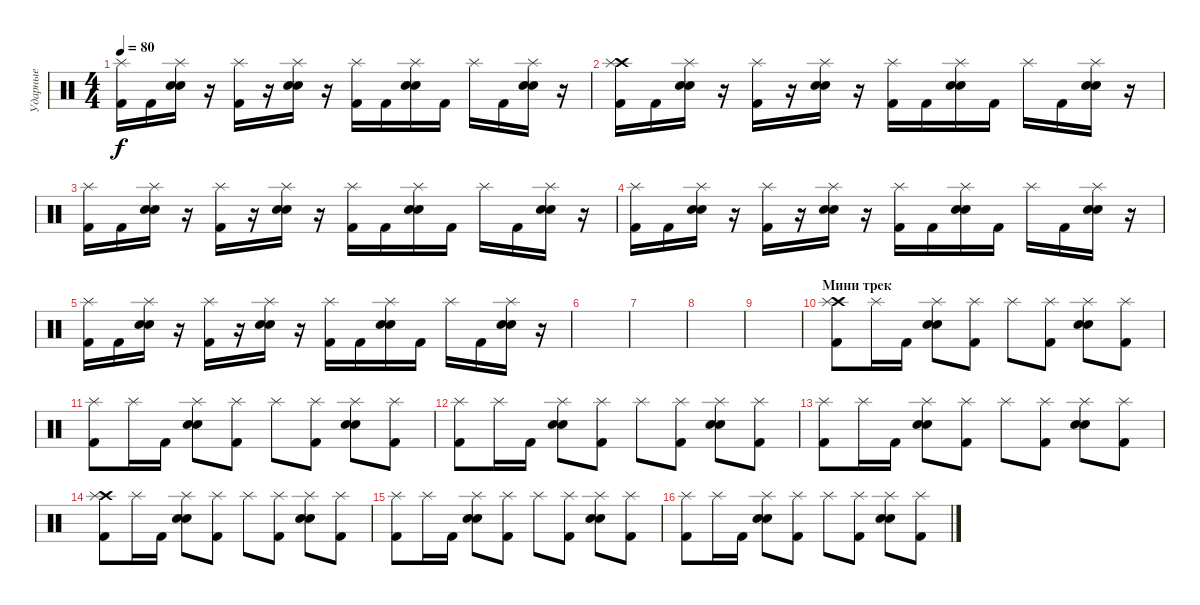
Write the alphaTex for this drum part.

\track ("Ударные" "Ударные") {instrument percussion}
\staff {score}
\articulation defaults
\ts (4 4)
\tempo 80
\clef neutral
\ks c
("Splash (hit)" "Kick (hit) 2").16{dy f} "Kick (hit) 2".16 ("Splash (hit)" "Snare (hit) 2" "Snare (hit) 2").16 r.16 ("Splash (hit)" "Kick (hit) 2").16 r.16 ("Splash (hit)" "Snare (hit) 2" "Snare (hit) 2").16 r.16 ("Splash (hit)" "Kick (hit) 2").16 "Kick (hit) 2".16 ("Splash (hit)" "Snare (hit) 2" "Snare (hit) 2").16 "Kick (hit) 2".16 "Splash (hit)".16 "Kick (hit) 2".16 ("Splash (hit)" "Snare (hit) 2" "Snare (hit) 2").16 r.16 |
("Crash high (hit)" "Splash (hit)" "Kick (hit) 2").16 "Kick (hit) 2".16 ("Splash (hit)" "Snare (hit) 2" "Snare (hit) 2").16 r.16 ("Splash (hit)" "Kick (hit) 2").16 r.16 ("Splash (hit)" "Snare (hit) 2" "Snare (hit) 2").16 r.16 ("Splash (hit)" "Kick (hit) 2").16 "Kick (hit) 2".16 ("Splash (hit)" "Snare (hit) 2" "Snare (hit) 2").16 "Kick (hit) 2".16 "Splash (hit)".16 "Kick (hit) 2".16 ("Splash (hit)" "Snare (hit) 2" "Snare (hit) 2").16 r.16 |
("Splash (hit)" "Kick (hit) 2").16 "Kick (hit) 2".16 ("Splash (hit)" "Snare (hit) 2" "Snare (hit) 2").16 r.16 ("Splash (hit)" "Kick (hit) 2").16 r.16 ("Splash (hit)" "Snare (hit) 2" "Snare (hit) 2").16 r.16 ("Splash (hit)" "Kick (hit) 2").16 "Kick (hit) 2".16 ("Splash (hit)" "Snare (hit) 2" "Snare (hit) 2").16 "Kick (hit) 2".16 "Splash (hit)".16 "Kick (hit) 2".16 ("Splash (hit)" "Snare (hit) 2" "Snare (hit) 2").16 r.16 |
("Splash (hit)" "Kick (hit) 2").16 "Kick (hit) 2".16 ("Splash (hit)" "Snare (hit) 2" "Snare (hit) 2").16 r.16 ("Splash (hit)" "Kick (hit) 2").16 r.16 ("Splash (hit)" "Snare (hit) 2" "Snare (hit) 2").16 r.16 ("Splash (hit)" "Kick (hit) 2").16 "Kick (hit) 2".16 ("Splash (hit)" "Snare (hit) 2" "Snare (hit) 2").16 "Kick (hit) 2".16 "Splash (hit)".16 "Kick (hit) 2".16 ("Splash (hit)" "Snare (hit) 2" "Snare (hit) 2").16 r.16 |
("Splash (hit)" "Kick (hit) 2").16 "Kick (hit) 2".16 ("Splash (hit)" "Snare (hit) 2" "Snare (hit) 2").16 r.16 ("Splash (hit)" "Kick (hit) 2").16 r.16 ("Splash (hit)" "Snare (hit) 2" "Snare (hit) 2").16 r.16 ("Splash (hit)" "Kick (hit) 2").16 "Kick (hit) 2".16 ("Splash (hit)" "Snare (hit) 2" "Snare (hit) 2").16 "Kick (hit) 2".16 "Splash (hit)".16 "Kick (hit) 2".16 ("Splash (hit)" "Snare (hit) 2" "Snare (hit) 2").16 r.16 |
|
|
|
|
\section ("" "Мини трек")
("Crash high (hit)" "Splash (hit)" "Kick (hit) 2").8 "Splash (hit)".16 "Kick (hit) 2".16 ("Splash (hit)" "Snare (hit) 2" "Snare (hit) 2").8 ("Splash (hit)" "Kick (hit) 2").8 "Splash (hit)".8 ("Splash (hit)" "Kick (hit) 2").8 ("Splash (hit)" "Snare (hit) 2" "Snare (hit) 2").8 ("Splash (hit)" "Kick (hit) 2").8 |
("Splash (hit)" "Kick (hit) 2").8 "Splash (hit)".16 "Kick (hit) 2".16 ("Splash (hit)" "Snare (hit) 2" "Snare (hit) 2").8 ("Splash (hit)" "Kick (hit) 2").8 "Splash (hit)".8 ("Splash (hit)" "Kick (hit) 2").8 ("Splash (hit)" "Snare (hit) 2" "Snare (hit) 2").8 ("Splash (hit)" "Kick (hit) 2").8 |
("Splash (hit)" "Kick (hit) 2").8 "Splash (hit)".16 "Kick (hit) 2".16 ("Splash (hit)" "Snare (hit) 2" "Snare (hit) 2").8 ("Splash (hit)" "Kick (hit) 2").8 "Splash (hit)".8 ("Splash (hit)" "Kick (hit) 2").8 ("Splash (hit)" "Snare (hit) 2" "Snare (hit) 2").8 ("Splash (hit)" "Kick (hit) 2").8 |
("Splash (hit)" "Kick (hit) 2").8 "Splash (hit)".16 "Kick (hit) 2".16 ("Splash (hit)" "Snare (hit) 2" "Snare (hit) 2").8 ("Splash (hit)" "Kick (hit) 2").8 "Splash (hit)".8 ("Splash (hit)" "Kick (hit) 2").8 ("Splash (hit)" "Snare (hit) 2" "Snare (hit) 2").8 ("Splash (hit)" "Kick (hit) 2").8 |
("Crash high (hit)" "Splash (hit)" "Kick (hit) 2").8 "Splash (hit)".16 "Kick (hit) 2".16 ("Splash (hit)" "Snare (hit) 2" "Snare (hit) 2").8 ("Splash (hit)" "Kick (hit) 2").8 "Splash (hit)".8 ("Splash (hit)" "Kick (hit) 2").8 ("Splash (hit)" "Snare (hit) 2" "Snare (hit) 2").8 ("Splash (hit)" "Kick (hit) 2").8 |
("Splash (hit)" "Kick (hit) 2").8 "Splash (hit)".16 "Kick (hit) 2".16 ("Splash (hit)" "Snare (hit) 2" "Snare (hit) 2").8 ("Splash (hit)" "Kick (hit) 2").8 "Splash (hit)".8 ("Splash (hit)" "Kick (hit) 2").8 ("Splash (hit)" "Snare (hit) 2" "Snare (hit) 2").8 ("Splash (hit)" "Kick (hit) 2").8 |
("Splash (hit)" "Kick (hit) 2").8 "Splash (hit)".16 "Kick (hit) 2".16 ("Splash (hit)" "Snare (hit) 2" "Snare (hit) 2").8 ("Splash (hit)" "Kick (hit) 2").8 "Splash (hit)".8 ("Splash (hit)" "Kick (hit) 2").8 ("Splash (hit)" "Snare (hit) 2" "Snare (hit) 2").8 ("Splash (hit)" "Kick (hit) 2").8
